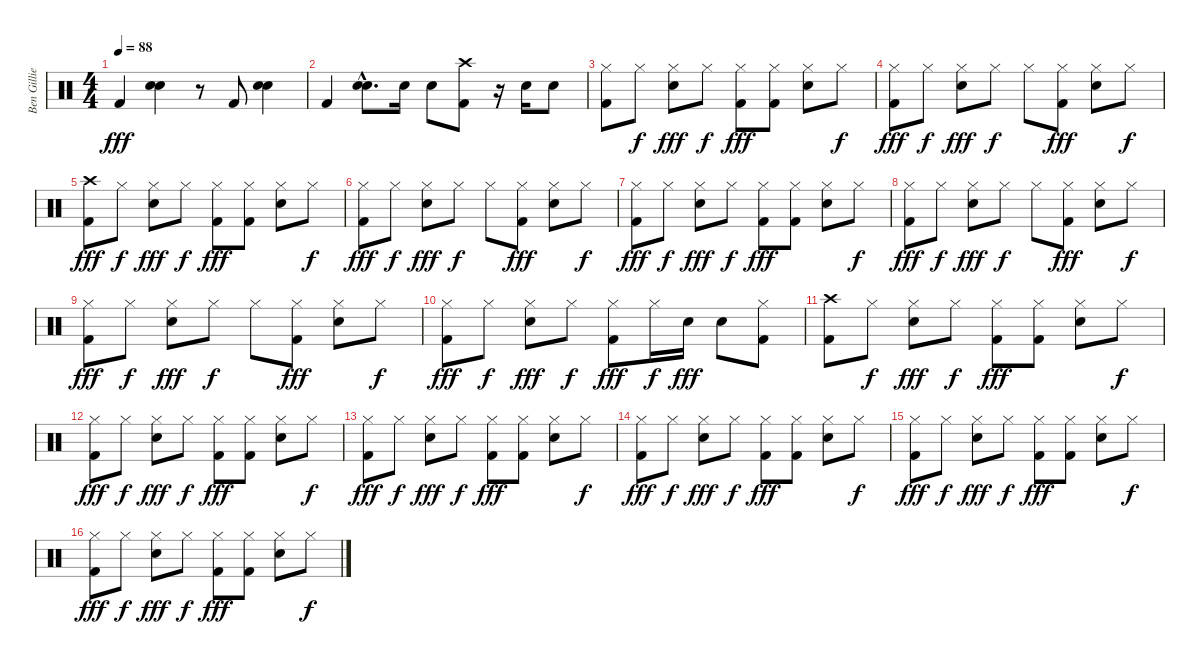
\track ("Ben Gillies (Drums)" "Ben Gillie") {instrument percussion}
\staff {score}
\articulation defaults
\ts (4 4)
\tempo 88
\clef neutral
\ks c "Kick (hit) 2".4{dy fff}
("Electric Snare (hit)" "Electric Snare (hit)").4 r.8 "Kick (hit) 2".8 ("Electric Snare (hit)" "Electric Snare (hit)").4 |
"Kick (hit) 2".4 ("Electric Snare (hit)"{hac} "Electric Snare (hit)"{hac}).8{d} "Electric Snare (hit)".16 "Electric Snare (hit)".8 ("Crash high (hit)" "Kick (hit) 2").8 r.16 "Electric Snare (hit)".16 "Electric Snare (hit)".8 |
("Hi-Hat (closed)" "Kick (hit) 2").8 "Hi-Hat (closed)".8{dy f} ("Hi-Hat (closed)" "Electric Snare (hit)").8{dy fff} "Hi-Hat (closed)".8{dy f} ("Hi-Hat (closed)" "Kick (hit) 2").8{dy fff} ("Hi-Hat (closed)" "Kick (hit) 2").8 ("Hi-Hat (closed)" "Electric Snare (hit)").8 "Hi-Hat (closed)".8{dy f} |
("Hi-Hat (closed)" "Kick (hit) 2").8{dy fff} "Hi-Hat (closed)".8{dy f} ("Hi-Hat (closed)" "Electric Snare (hit)").8{dy fff} "Hi-Hat (closed)".8{dy f} "Hi-Hat (closed)".8 ("Hi-Hat (closed)" "Kick (hit) 2").8{dy fff} ("Hi-Hat (closed)" "Electric Snare (hit)").8 "Hi-Hat (closed)".8{dy f} |
("Crash high (hit)" "Kick (hit) 2").8{dy fff} "Hi-Hat (closed)".8{dy f} ("Hi-Hat (closed)" "Electric Snare (hit)").8{dy fff} "Hi-Hat (closed)".8{dy f} ("Hi-Hat (closed)" "Kick (hit) 2").8{dy fff} ("Hi-Hat (closed)" "Kick (hit) 2").8 ("Hi-Hat (closed)" "Electric Snare (hit)").8 "Hi-Hat (closed)".8{dy f} |
("Hi-Hat (closed)" "Kick (hit) 2").8{dy fff} "Hi-Hat (closed)".8{dy f} ("Hi-Hat (closed)" "Electric Snare (hit)").8{dy fff} "Hi-Hat (closed)".8{dy f} "Hi-Hat (closed)".8 ("Hi-Hat (closed)" "Kick (hit) 2").8{dy fff} ("Hi-Hat (closed)" "Electric Snare (hit)").8 "Hi-Hat (closed)".8{dy f} |
("Hi-Hat (closed)" "Kick (hit) 2").8{dy fff} "Hi-Hat (closed)".8{dy f} ("Hi-Hat (closed)" "Electric Snare (hit)").8{dy fff} "Hi-Hat (closed)".8{dy f} ("Hi-Hat (closed)" "Kick (hit) 2").8{dy fff} ("Hi-Hat (closed)" "Kick (hit) 2").8 ("Hi-Hat (closed)" "Electric Snare (hit)").8 "Hi-Hat (closed)".8{dy f} |
("Hi-Hat (closed)" "Kick (hit) 2").8{dy fff} "Hi-Hat (closed)".8{dy f} ("Hi-Hat (closed)" "Electric Snare (hit)").8{dy fff} "Hi-Hat (closed)".8{dy f} "Hi-Hat (closed)".8 ("Hi-Hat (closed)" "Kick (hit) 2").8{dy fff} ("Hi-Hat (closed)" "Electric Snare (hit)").8 "Hi-Hat (closed)".8{dy f} |
("Hi-Hat (closed)" "Kick (hit) 2").8{dy fff} "Hi-Hat (closed)".8{dy f} ("Hi-Hat (closed)" "Electric Snare (hit)").8{dy fff} "Hi-Hat (closed)".8{dy f} "Hi-Hat (closed)".8 ("Hi-Hat (closed)" "Kick (hit) 2").8{dy fff} ("Hi-Hat (closed)" "Electric Snare (hit)").8 "Hi-Hat (closed)".8{dy f} |
("Hi-Hat (closed)" "Kick (hit) 2").8{dy fff} "Hi-Hat (closed)".8{dy f} ("Hi-Hat (closed)" "Electric Snare (hit)").8{dy fff} "Hi-Hat (closed)".8{dy f} ("Hi-Hat (closed)" "Kick (hit) 2").8{dy fff} "Hi-Hat (closed)".16{dy f} "Electric Snare (hit)".16{dy fff} "Electric Snare (hit)".8 ("Hi-Hat (closed)" "Kick (hit) 2").8 |
("Crash high (hit)" "Kick (hit) 2").8 "Hi-Hat (closed)".8{dy f} ("Hi-Hat (closed)" "Electric Snare (hit)").8{dy fff} "Hi-Hat (closed)".8{dy f} ("Hi-Hat (closed)" "Kick (hit) 2").8{dy fff} ("Hi-Hat (closed)" "Kick (hit) 2").8 ("Hi-Hat (closed)" "Electric Snare (hit)").8 "Hi-Hat (closed)".8{dy f} |
("Hi-Hat (closed)" "Kick (hit) 2").8{dy fff} "Hi-Hat (closed)".8{dy f} ("Hi-Hat (closed)" "Electric Snare (hit)").8{dy fff} "Hi-Hat (closed)".8{dy f} ("Hi-Hat (closed)" "Kick (hit) 2").8{dy fff} ("Hi-Hat (closed)" "Kick (hit) 2").8 ("Hi-Hat (closed)" "Electric Snare (hit)").8 "Hi-Hat (closed)".8{dy f} |
("Hi-Hat (closed)" "Kick (hit) 2").8{dy fff} "Hi-Hat (closed)".8{dy f} ("Hi-Hat (closed)" "Electric Snare (hit)").8{dy fff} "Hi-Hat (closed)".8{dy f} ("Hi-Hat (closed)" "Kick (hit) 2").8{dy fff} ("Hi-Hat (closed)" "Kick (hit) 2").8 ("Hi-Hat (closed)" "Electric Snare (hit)").8 "Hi-Hat (closed)".8{dy f} |
("Hi-Hat (closed)" "Kick (hit) 2").8{dy fff} "Hi-Hat (closed)".8{dy f} ("Hi-Hat (closed)" "Electric Snare (hit)").8{dy fff} "Hi-Hat (closed)".8{dy f} ("Hi-Hat (closed)" "Kick (hit) 2").8{dy fff} ("Hi-Hat (closed)" "Kick (hit) 2").8 ("Hi-Hat (closed)" "Electric Snare (hit)").8 "Hi-Hat (closed)".8{dy f} |
("Hi-Hat (closed)" "Kick (hit) 2").8{dy fff} "Hi-Hat (closed)".8{dy f} ("Hi-Hat (closed)" "Electric Snare (hit)").8{dy fff} "Hi-Hat (closed)".8{dy f} ("Hi-Hat (closed)" "Kick (hit) 2").8{dy fff} ("Hi-Hat (closed)" "Kick (hit) 2").8 ("Hi-Hat (closed)" "Electric Snare (hit)").8 "Hi-Hat (closed)".8{dy f} |
("Hi-Hat (closed)" "Kick (hit) 2").8{dy fff} "Hi-Hat (closed)".8{dy f} ("Hi-Hat (closed)" "Electric Snare (hit)").8{dy fff} "Hi-Hat (closed)".8{dy f} ("Hi-Hat (closed)" "Kick (hit) 2").8{dy fff} ("Hi-Hat (closed)" "Kick (hit) 2").8 ("Hi-Hat (closed)" "Electric Snare (hit)").8 "Hi-Hat (closed)".8{dy f}
